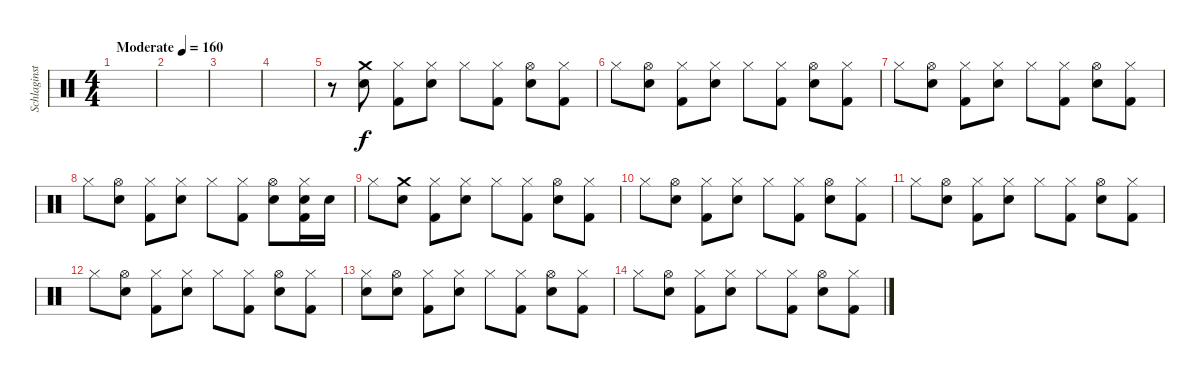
\track ("Schlaginstrumente - Auswahl" "Schlaginst") {instrument percussion}
\staff {score}
\articulation defaults
\ts (4 4)
\tempo (160 "Moderate")
\clef neutral
\ks c
|
|
|
|
r.8 ("Crash medium (hit)" "Snare (hit) 2").8 ("Hi-Hat (closed)" "Kick (hit) 2").8 ("Hi-Hat (closed)" "Snare (hit) 2").8 "Hi-Hat (closed)".8 ("Hi-Hat (closed)" "Kick (hit) 2").8 ("Hi-Hat (open)" "Snare (hit) 2").8 ("Hi-Hat (closed)" "Kick (hit) 2").8 |
"Hi-Hat (closed)".8 ("Hi-Hat (open)" "Snare (hit) 2").8 ("Hi-Hat (closed)" "Kick (hit) 2").8 ("Hi-Hat (closed)" "Snare (hit) 2").8 "Hi-Hat (closed)".8 ("Hi-Hat (closed)" "Kick (hit) 2").8 ("Hi-Hat (open)" "Snare (hit) 2").8 ("Hi-Hat (closed)" "Kick (hit) 2").8 |
"Hi-Hat (closed)".8 ("Hi-Hat (open)" "Snare (hit) 2").8 ("Hi-Hat (closed)" "Kick (hit) 2").8 ("Hi-Hat (closed)" "Snare (hit) 2").8 "Hi-Hat (closed)".8 ("Hi-Hat (closed)" "Kick (hit) 2").8 ("Hi-Hat (open)" "Snare (hit) 2").8 ("Hi-Hat (closed)" "Kick (hit) 2").8 |
"Hi-Hat (closed)".8 ("Hi-Hat (open)" "Snare (hit) 2").8 ("Hi-Hat (closed)" "Kick (hit) 2").8 ("Hi-Hat (closed)" "Snare (hit) 2").8 "Hi-Hat (closed)".8 ("Hi-Hat (closed)" "Kick (hit) 2").8 ("Hi-Hat (open)" "Snare (hit) 2").8 ("Hi-Hat (closed)" "Snare (hit) 2" "Kick (hit) 2").16 "Snare (hit) 2".16 |
"Hi-Hat (closed)".8 ("Crash medium (hit)" "Snare (hit) 2").8 ("Hi-Hat (closed)" "Kick (hit) 2").8 ("Hi-Hat (closed)" "Snare (hit) 2").8 "Hi-Hat (closed)".8 ("Hi-Hat (closed)" "Kick (hit) 2").8 ("Hi-Hat (open)" "Snare (hit) 2").8 ("Hi-Hat (closed)" "Kick (hit) 2").8 |
"Hi-Hat (closed)".8 ("Hi-Hat (open)" "Snare (hit) 2").8 ("Hi-Hat (closed)" "Kick (hit) 2").8 ("Hi-Hat (closed)" "Snare (hit) 2").8 "Hi-Hat (closed)".8 ("Hi-Hat (closed)" "Kick (hit) 2").8 ("Hi-Hat (open)" "Snare (hit) 2").8 ("Hi-Hat (closed)" "Kick (hit) 2").8 |
"Hi-Hat (closed)".8 ("Hi-Hat (open)" "Snare (hit) 2").8 ("Hi-Hat (closed)" "Kick (hit) 2").8 ("Hi-Hat (closed)" "Snare (hit) 2").8 "Hi-Hat (closed)".8 ("Hi-Hat (closed)" "Kick (hit) 2").8 ("Hi-Hat (open)" "Snare (hit) 2").8 ("Hi-Hat (closed)" "Kick (hit) 2").8 |
"Hi-Hat (closed)".8 ("Hi-Hat (open)" "Snare (hit) 2").8 ("Hi-Hat (closed)" "Kick (hit) 2").8 ("Hi-Hat (closed)" "Snare (hit) 2").8 "Hi-Hat (closed)".8 ("Hi-Hat (closed)" "Kick (hit) 2").8 ("Hi-Hat (open)" "Snare (hit) 2").8 ("Hi-Hat (closed)" "Kick (hit) 2").8 |
("Hi-Hat (closed)" "Snare (hit) 2").8 ("Hi-Hat (open)" "Snare (hit) 2").8 ("Hi-Hat (closed)" "Kick (hit) 2").8 ("Hi-Hat (closed)" "Snare (hit) 2").8 "Hi-Hat (closed)".8 ("Hi-Hat (closed)" "Kick (hit) 2").8 ("Hi-Hat (open)" "Snare (hit) 2").8 ("Hi-Hat (closed)" "Kick (hit) 2").8 |
"Hi-Hat (closed)".8 ("Hi-Hat (open)" "Snare (hit) 2").8 ("Hi-Hat (closed)" "Kick (hit) 2").8 ("Hi-Hat (closed)" "Snare (hit) 2").8 "Hi-Hat (closed)".8 ("Hi-Hat (closed)" "Kick (hit) 2").8 ("Hi-Hat (open)" "Snare (hit) 2").8 ("Hi-Hat (closed)" "Kick (hit) 2").8
